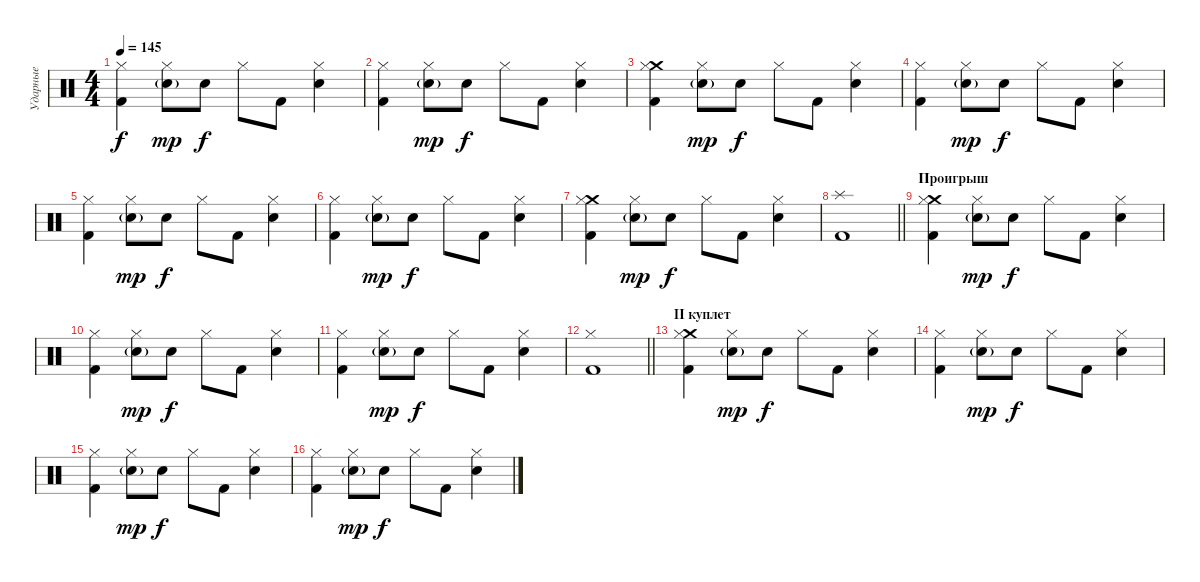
\track ("Ударные" "Ударные") {instrument percussion}
\staff {score}
\articulation defaults
\ts (4 4)
\tempo 145
\clef neutral
\ks c
("Kick (hit) 2" "Hi-Hat (closed)").4{dy f} ("Electric Snare (hit)"{g} "Hi-Hat (closed)").8{dy mp} "Electric Snare (hit)".8{dy f} "Hi-Hat (closed)".8 "Kick (hit) 2".8 ("Electric Snare (hit)" "Hi-Hat (closed)").4 |
("Kick (hit) 2" "Hi-Hat (closed)").4 ("Electric Snare (hit)"{g} "Hi-Hat (closed)").8{dy mp} "Electric Snare (hit)".8{dy f} "Hi-Hat (closed)".8 "Kick (hit) 2".8 ("Electric Snare (hit)" "Hi-Hat (closed)").4 |
("Crash medium (hit)" "Kick (hit) 2" "Hi-Hat (closed)").4 ("Electric Snare (hit)"{g} "Hi-Hat (closed)").8{dy mp} "Electric Snare (hit)".8{dy f} "Hi-Hat (closed)".8 "Kick (hit) 2".8 ("Electric Snare (hit)" "Hi-Hat (closed)").4 |
("Kick (hit) 2" "Hi-Hat (closed)").4 ("Electric Snare (hit)"{g} "Hi-Hat (closed)").8{dy mp} "Electric Snare (hit)".8{dy f} "Hi-Hat (closed)".8 "Kick (hit) 2".8 ("Electric Snare (hit)" "Hi-Hat (closed)").4 |
("Kick (hit) 2" "Hi-Hat (closed)").4 ("Electric Snare (hit)"{g} "Hi-Hat (closed)").8{dy mp} "Electric Snare (hit)".8{dy f} "Hi-Hat (closed)".8 "Kick (hit) 2".8 ("Electric Snare (hit)" "Hi-Hat (closed)").4 |
("Kick (hit) 2" "Hi-Hat (closed)").4 ("Electric Snare (hit)"{g} "Hi-Hat (closed)").8{dy mp} "Electric Snare (hit)".8{dy f} "Hi-Hat (closed)".8 "Kick (hit) 2".8 ("Electric Snare (hit)" "Hi-Hat (closed)").4 |
("Crash medium (hit)" "Kick (hit) 2" "Hi-Hat (closed)").4 ("Electric Snare (hit)"{g} "Hi-Hat (closed)").8{dy mp} "Electric Snare (hit)".8{dy f} "Hi-Hat (closed)".8 "Kick (hit) 2".8 ("Electric Snare (hit)" "Hi-Hat (closed)").4 |
\barLineRight lightlight
("Splash (hit)" "Kick (hit) 2").1 |
\section ("" "Проигрыш")
("Crash medium (hit)" "Kick (hit) 2" "Hi-Hat (closed)").4 ("Electric Snare (hit)"{g} "Hi-Hat (closed)").8{dy mp} "Electric Snare (hit)".8{dy f} "Hi-Hat (closed)".8 "Kick (hit) 2".8 ("Electric Snare (hit)" "Hi-Hat (closed)").4 |
("Kick (hit) 2" "Hi-Hat (closed)").4 ("Electric Snare (hit)"{g} "Hi-Hat (closed)").8{dy mp} "Electric Snare (hit)".8{dy f} "Hi-Hat (closed)".8 "Kick (hit) 2".8 ("Electric Snare (hit)" "Hi-Hat (closed)").4 |
("Kick (hit) 2" "Hi-Hat (closed)").4 ("Electric Snare (hit)"{g} "Hi-Hat (closed)").8{dy mp} "Electric Snare (hit)".8{dy f} "Hi-Hat (closed)".8 "Kick (hit) 2".8 ("Electric Snare (hit)" "Hi-Hat (closed)").4 |
\barLineRight lightlight
("Kick (hit) 2" "Hi-Hat (closed)").1 |
\section ("" "II куплет")
("Crash medium (hit)" "Kick (hit) 2" "Hi-Hat (closed)").4 ("Electric Snare (hit)"{g} "Hi-Hat (closed)").8{dy mp} "Electric Snare (hit)".8{dy f} "Hi-Hat (closed)".8 "Kick (hit) 2".8 ("Electric Snare (hit)" "Hi-Hat (closed)").4 |
("Kick (hit) 2" "Hi-Hat (closed)").4 ("Electric Snare (hit)"{g} "Hi-Hat (closed)").8{dy mp} "Electric Snare (hit)".8{dy f} "Hi-Hat (closed)".8 "Kick (hit) 2".8 ("Electric Snare (hit)" "Hi-Hat (closed)").4 |
("Kick (hit) 2" "Hi-Hat (closed)").4 ("Electric Snare (hit)"{g} "Hi-Hat (closed)").8{dy mp} "Electric Snare (hit)".8{dy f} "Hi-Hat (closed)".8 "Kick (hit) 2".8 ("Electric Snare (hit)" "Hi-Hat (closed)").4 |
("Kick (hit) 2" "Hi-Hat (closed)").4 ("Electric Snare (hit)"{g} "Hi-Hat (closed)").8{dy mp} "Electric Snare (hit)".8{dy f} "Hi-Hat (closed)".8 "Kick (hit) 2".8 ("Electric Snare (hit)" "Hi-Hat (closed)").4
